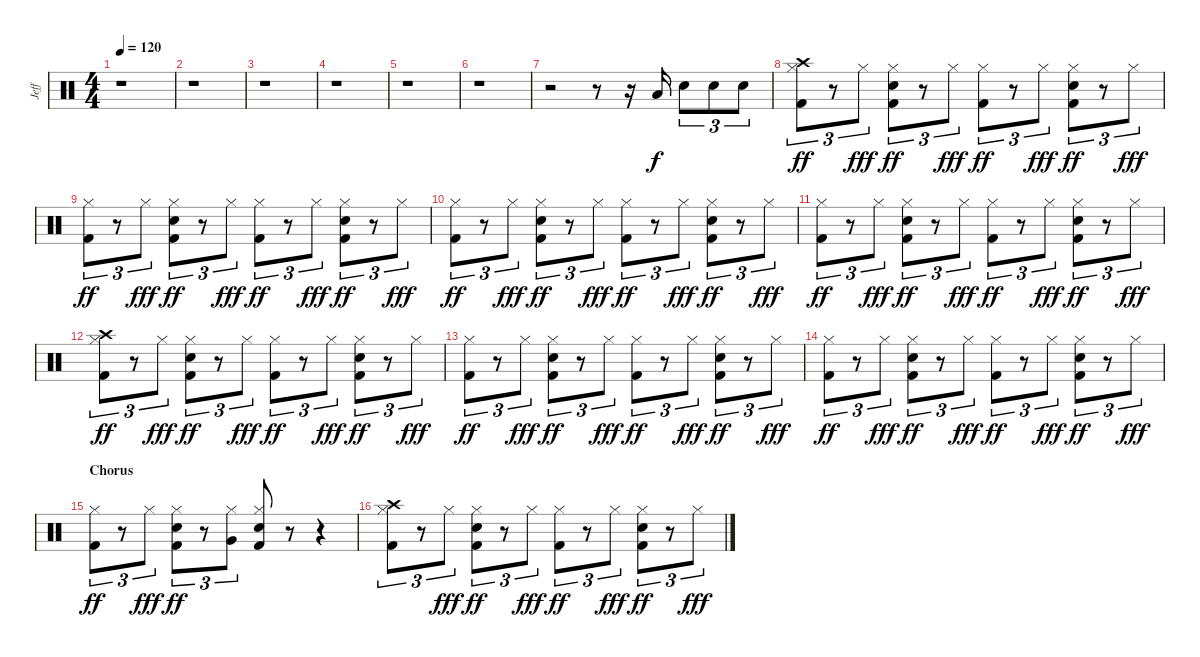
\track ("Jeff" "Jeff") {instrument percussion}
\staff {score}
\articulation defaults
\ts (4 4)
\tempo 120
\clef neutral
\ks c
r.1{dy f} |
r.1 |
r.1 |
r.1 |
r.1 |
r.1 |
r.2 r.8 r.16 "Low Floor Tom (hit)".16 "Snare (hit) 2".8{tu (3 2)} "Snare (hit) 2".8{tu (3 2)} "Snare (hit) 2".8{tu (3 2)} |
("Crash high (hit)" "Hi-Hat (closed)" "Kick (hit) 2").8{tu (3 2) dy ff} r.8{tu (3 2)} "Hi-Hat (closed)".8{tu (3 2) dy fff} ("Hi-Hat (closed)" "Snare (hit) 2" "Kick (hit) 2").8{tu (3 2) dy ff} r.8{tu (3 2)} "Hi-Hat (closed)".8{tu (3 2) dy fff} ("Hi-Hat (closed)" "Kick (hit) 2").8{tu (3 2) dy ff} r.8{tu (3 2)} "Hi-Hat (closed)".8{tu (3 2) dy fff} ("Hi-Hat (closed)" "Snare (hit) 2" "Kick (hit) 2").8{tu (3 2) dy ff} r.8{tu (3 2)} "Hi-Hat (closed)".8{tu (3 2) dy fff} |
("Hi-Hat (closed)" "Kick (hit) 2").8{tu (3 2) dy ff} r.8{tu (3 2)} "Hi-Hat (closed)".8{tu (3 2) dy fff} ("Hi-Hat (closed)" "Snare (hit) 2" "Kick (hit) 2").8{tu (3 2) dy ff} r.8{tu (3 2)} "Hi-Hat (closed)".8{tu (3 2) dy fff} ("Hi-Hat (closed)" "Kick (hit) 2").8{tu (3 2) dy ff} r.8{tu (3 2)} "Hi-Hat (closed)".8{tu (3 2) dy fff} ("Hi-Hat (closed)" "Snare (hit) 2" "Kick (hit) 2").8{tu (3 2) dy ff} r.8{tu (3 2)} "Hi-Hat (closed)".8{tu (3 2) dy fff} |
("Hi-Hat (closed)" "Kick (hit) 2").8{tu (3 2) dy ff} r.8{tu (3 2)} "Hi-Hat (closed)".8{tu (3 2) dy fff} ("Hi-Hat (closed)" "Snare (hit) 2" "Kick (hit) 2").8{tu (3 2) dy ff} r.8{tu (3 2)} "Hi-Hat (closed)".8{tu (3 2) dy fff} ("Hi-Hat (closed)" "Kick (hit) 2").8{tu (3 2) dy ff} r.8{tu (3 2)} "Hi-Hat (closed)".8{tu (3 2) dy fff} ("Hi-Hat (closed)" "Snare (hit) 2" "Kick (hit) 2").8{tu (3 2) dy ff} r.8{tu (3 2)} "Hi-Hat (closed)".8{tu (3 2) dy fff} |
("Hi-Hat (closed)" "Kick (hit) 2").8{tu (3 2) dy ff} r.8{tu (3 2)} "Hi-Hat (closed)".8{tu (3 2) dy fff} ("Hi-Hat (closed)" "Snare (hit) 2" "Kick (hit) 2").8{tu (3 2) dy ff} r.8{tu (3 2)} "Hi-Hat (closed)".8{tu (3 2) dy fff} ("Hi-Hat (closed)" "Kick (hit) 2").8{tu (3 2) dy ff} r.8{tu (3 2)} "Hi-Hat (closed)".8{tu (3 2) dy fff} ("Hi-Hat (closed)" "Snare (hit) 2" "Kick (hit) 2").8{tu (3 2) dy ff} r.8{tu (3 2)} "Hi-Hat (closed)".8{tu (3 2) dy fff} |
("Crash high (hit)" "Hi-Hat (closed)" "Kick (hit) 2").8{tu (3 2) dy ff} r.8{tu (3 2)} "Hi-Hat (closed)".8{tu (3 2) dy fff} ("Hi-Hat (closed)" "Snare (hit) 2" "Kick (hit) 2").8{tu (3 2) dy ff} r.8{tu (3 2)} "Hi-Hat (closed)".8{tu (3 2) dy fff} ("Hi-Hat (closed)" "Kick (hit) 2").8{tu (3 2) dy ff} r.8{tu (3 2)} "Hi-Hat (closed)".8{tu (3 2) dy fff} ("Hi-Hat (closed)" "Snare (hit) 2" "Kick (hit) 2").8{tu (3 2) dy ff} r.8{tu (3 2)} "Hi-Hat (closed)".8{tu (3 2) dy fff} |
("Hi-Hat (closed)" "Kick (hit) 2").8{tu (3 2) dy ff} r.8{tu (3 2)} "Hi-Hat (closed)".8{tu (3 2) dy fff} ("Hi-Hat (closed)" "Snare (hit) 2" "Kick (hit) 2").8{tu (3 2) dy ff} r.8{tu (3 2)} "Hi-Hat (closed)".8{tu (3 2) dy fff} ("Hi-Hat (closed)" "Kick (hit) 2").8{tu (3 2) dy ff} r.8{tu (3 2)} "Hi-Hat (closed)".8{tu (3 2) dy fff} ("Hi-Hat (closed)" "Snare (hit) 2" "Kick (hit) 2").8{tu (3 2) dy ff} r.8{tu (3 2)} "Hi-Hat (closed)".8{tu (3 2) dy fff} |
("Hi-Hat (closed)" "Kick (hit) 2").8{tu (3 2) dy ff} r.8{tu (3 2)} "Hi-Hat (closed)".8{tu (3 2) dy fff} ("Hi-Hat (closed)" "Snare (hit) 2" "Kick (hit) 2").8{tu (3 2) dy ff} r.8{tu (3 2)} "Hi-Hat (closed)".8{tu (3 2) dy fff} ("Hi-Hat (closed)" "Kick (hit) 2").8{tu (3 2) dy ff} r.8{tu (3 2)} "Hi-Hat (closed)".8{tu (3 2) dy fff} ("Hi-Hat (closed)" "Snare (hit) 2" "Kick (hit) 2").8{tu (3 2) dy ff} r.8{tu (3 2)} "Hi-Hat (closed)".8{tu (3 2) dy fff} |
\section ("" "Chorus")
("Hi-Hat (closed)" "Kick (hit) 2").8{tu (3 2) dy ff} r.8{tu (3 2)} "Hi-Hat (closed)".8{tu (3 2) dy fff} ("Hi-Hat (closed)" "Snare (hit) 2" "Kick (hit) 2").8{tu (3 2) dy ff} r.8{tu (3 2)} ("Hi-Hat (closed)" "Very Low Tom (hit)").8{tu (3 2)} ("Hi-Hat (closed)" "Snare (hit) 2" "Kick (hit) 2").8 r.8 r.4 |
("Crash high (hit)" "Hi-Hat (closed)" "Kick (hit) 2").8{tu (3 2)} r.8{tu (3 2)} "Hi-Hat (closed)".8{tu (3 2) dy fff} ("Hi-Hat (closed)" "Snare (hit) 2" "Kick (hit) 2").8{tu (3 2) dy ff} r.8{tu (3 2)} "Hi-Hat (closed)".8{tu (3 2) dy fff} ("Hi-Hat (closed)" "Kick (hit) 2").8{tu (3 2) dy ff} r.8{tu (3 2)} "Hi-Hat (closed)".8{tu (3 2) dy fff} ("Hi-Hat (closed)" "Snare (hit) 2" "Kick (hit) 2").8{tu (3 2) dy ff} r.8{tu (3 2)} "Hi-Hat (closed)".8{tu (3 2) dy fff}
